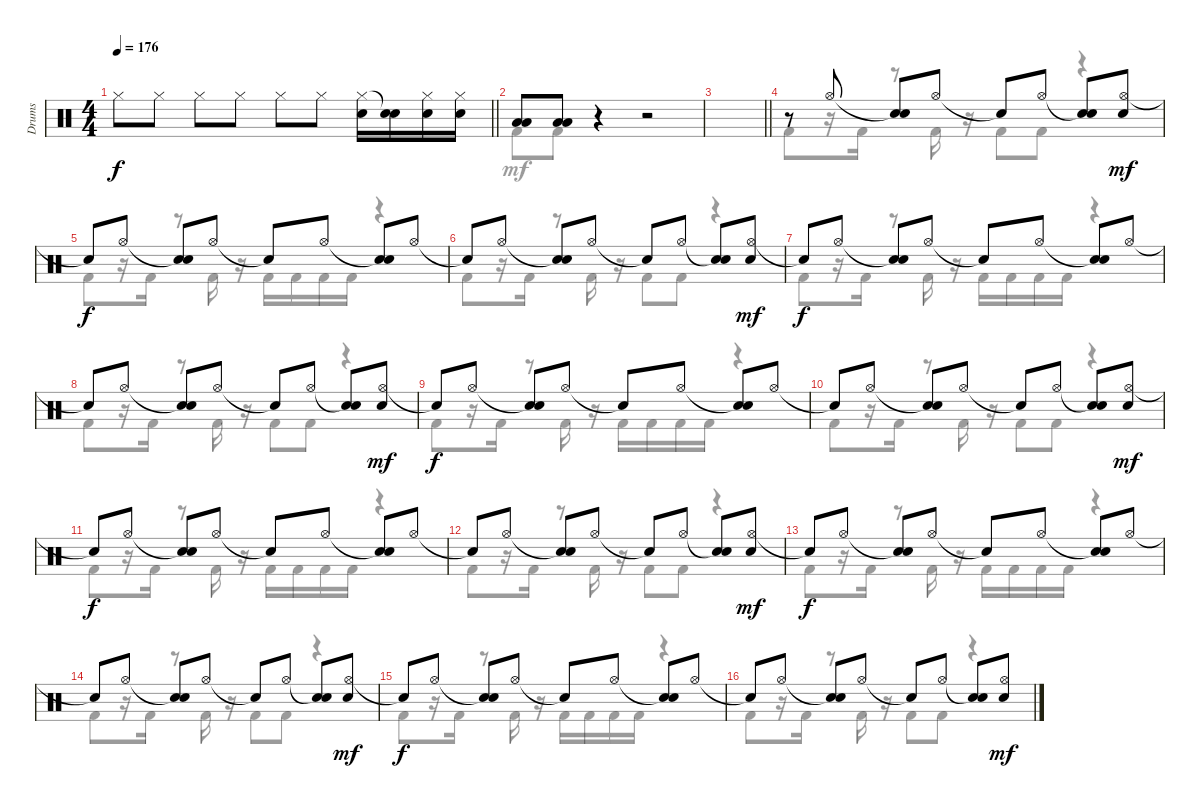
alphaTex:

\track ("Drums" "Drums") {instrument percussion}
\staff {score}
\articulation defaults
\voice
\ts (4 4)
\tempo 176
\clef neutral
\barLineRight lightlight
\ks c "Hi-Hat (closed)".8{dy f} "Hi-Hat (closed)".8 "Hi-Hat (closed)".8 "Hi-Hat (closed)".8 "Hi-Hat (closed)".8 "Hi-Hat (closed)".8
("Hi-Hat (closed)" "Snare (hit) 2").16 ("Snare (hit)"{t} "Snare (hit) 2").16 ("Hi-Hat (closed)" "Snare (hit) 2").16 ("Hi-Hat (closed)" "Snare (hit) 2").16 |
("Low Tom (hit)" "Low Floor Tom (hit)").8 ("Low Tom (hit)" "Low Floor Tom (hit)").8 r.4 r.2 |
\barLineRight lightlight
|
r.8 "Hi-Hat (open)".8 ("Snare (hit)"{t} "Snare (hit) 2").8 "Hi-Hat (open)".8 "Snare (hit)"{t}.8 "Hi-Hat (open)".8 ("Snare (hit)"{t} "Snare (hit) 2").8 ("Hi-Hat (open)" "Electric Snare (hit)").8{dy mf} |
"Snare (hit)"{t}.8{dy f} "Hi-Hat (open)".8 ("Snare (hit)"{t} "Snare (hit) 2").8 "Hi-Hat (open)".8 "Snare (hit)"{t}.8 "Hi-Hat (open)".8 ("Snare (hit)"{t} "Snare (hit) 2").8 "Hi-Hat (open)".8 |
"Snare (hit)"{t}.8 "Hi-Hat (open)".8 ("Snare (hit)"{t} "Snare (hit) 2").8 "Hi-Hat (open)".8 "Snare (hit)"{t}.8 "Hi-Hat (open)".8 ("Snare (hit)"{t} "Snare (hit) 2").8 ("Hi-Hat (open)" "Electric Snare (hit)").8{dy mf} |
"Snare (hit)"{t}.8{dy f} "Hi-Hat (open)".8 ("Snare (hit)"{t} "Snare (hit) 2").8 "Hi-Hat (open)".8 "Snare (hit)"{t}.8 "Hi-Hat (open)".8 ("Snare (hit)"{t} "Snare (hit) 2").8 "Hi-Hat (open)".8 |
"Snare (hit)"{t}.8 "Hi-Hat (open)".8 ("Snare (hit)"{t} "Snare (hit) 2").8 "Hi-Hat (open)".8 "Snare (hit)"{t}.8 "Hi-Hat (open)".8 ("Snare (hit)"{t} "Snare (hit) 2").8 ("Hi-Hat (open)" "Electric Snare (hit)").8{dy mf} |
"Snare (hit)"{t}.8{dy f} "Hi-Hat (open)".8 ("Snare (hit)"{t} "Snare (hit) 2").8 "Hi-Hat (open)".8 "Snare (hit)"{t}.8 "Hi-Hat (open)".8 ("Snare (hit)"{t} "Snare (hit) 2").8 "Hi-Hat (open)".8 |
"Snare (hit)"{t}.8 "Hi-Hat (open)".8 ("Snare (hit)"{t} "Snare (hit) 2").8 "Hi-Hat (open)".8 "Snare (hit)"{t}.8 "Hi-Hat (open)".8 ("Snare (hit)"{t} "Snare (hit) 2").8 ("Hi-Hat (open)" "Electric Snare (hit)").8{dy mf} |
"Snare (hit)"{t}.8{dy f} "Hi-Hat (open)".8 ("Snare (hit)"{t} "Snare (hit) 2").8 "Hi-Hat (open)".8 "Snare (hit)"{t}.8 "Hi-Hat (open)".8 ("Snare (hit)"{t} "Snare (hit) 2").8 "Hi-Hat (open)".8 |
"Snare (hit)"{t}.8 "Hi-Hat (open)".8 ("Snare (hit)"{t} "Snare (hit) 2").8 "Hi-Hat (open)".8 "Snare (hit)"{t}.8 "Hi-Hat (open)".8 ("Snare (hit)"{t} "Snare (hit) 2").8 ("Hi-Hat (open)" "Electric Snare (hit)").8{dy mf} |
"Snare (hit)"{t}.8{dy f} "Hi-Hat (open)".8 ("Snare (hit)"{t} "Snare (hit) 2").8 "Hi-Hat (open)".8 "Snare (hit)"{t}.8 "Hi-Hat (open)".8 ("Snare (hit)"{t} "Snare (hit) 2").8 "Hi-Hat (open)".8 |
"Snare (hit)"{t}.8 "Hi-Hat (open)".8 ("Snare (hit)"{t} "Snare (hit) 2").8 "Hi-Hat (open)".8 "Snare (hit)"{t}.8 "Hi-Hat (open)".8 ("Snare (hit)"{t} "Snare (hit) 2").8 ("Hi-Hat (open)" "Electric Snare (hit)").8{dy mf} |
"Snare (hit)"{t}.8{dy f} "Hi-Hat (open)".8 ("Snare (hit)"{t} "Snare (hit) 2").8 "Hi-Hat (open)".8 "Snare (hit)"{t}.8 "Hi-Hat (open)".8 ("Snare (hit)"{t} "Snare (hit) 2").8 "Hi-Hat (open)".8 |
"Snare (hit)"{t}.8 "Hi-Hat (open)".8 ("Snare (hit)"{t} "Snare (hit) 2").8 "Hi-Hat (open)".8 "Snare (hit)"{t}.8 "Hi-Hat (open)".8 ("Snare (hit)"{t} "Snare (hit) 2").8 ("Hi-Hat (open)" "Electric Snare (hit)").8{dy mf}
\voice
\clef neutral
\ottava regular
\simile none
\barLineRight lightlight
\ks c
|
"Kick (hit) 2".8 "Kick (hit) 2".8 r.4 r.2 |
\barLineRight lightlight
|
"Kick (hit) 2".8 r.16 "Kick (hit) 2".16 r.8 "Kick (hit) 2".16 r.16 "Kick (hit) 2".8 "Kick (hit) 2".8 r.4 |
"Kick (hit) 2".8 r.16 "Kick (hit) 2".16 r.8 "Kick (hit) 2".16 r.16 "Kick (hit) 2".16 "Kick (hit) 2".16 "Kick (hit) 2".16 "Kick (hit) 2".16 r.4 |
"Kick (hit) 2".8 r.16 "Kick (hit) 2".16 r.8 "Kick (hit) 2".16 r.16 "Kick (hit) 2".8 "Kick (hit) 2".8 r.4 |
"Kick (hit) 2".8 r.16 "Kick (hit) 2".16 r.8 "Kick (hit) 2".16 r.16 "Kick (hit) 2".16 "Kick (hit) 2".16 "Kick (hit) 2".16 "Kick (hit) 2".16 r.4 |
"Kick (hit) 2".8 r.16 "Kick (hit) 2".16 r.8 "Kick (hit) 2".16 r.16 "Kick (hit) 2".8 "Kick (hit) 2".8 r.4 |
"Kick (hit) 2".8 r.16 "Kick (hit) 2".16 r.8 "Kick (hit) 2".16 r.16 "Kick (hit) 2".16 "Kick (hit) 2".16 "Kick (hit) 2".16 "Kick (hit) 2".16 r.4 |
"Kick (hit) 2".8 r.16 "Kick (hit) 2".16 r.8 "Kick (hit) 2".16 r.16 "Kick (hit) 2".8 "Kick (hit) 2".8 r.4 |
"Kick (hit) 2".8 r.16 "Kick (hit) 2".16 r.8 "Kick (hit) 2".16 r.16 "Kick (hit) 2".16 "Kick (hit) 2".16 "Kick (hit) 2".16 "Kick (hit) 2".16 r.4 |
"Kick (hit) 2".8 r.16 "Kick (hit) 2".16 r.8 "Kick (hit) 2".16 r.16 "Kick (hit) 2".8 "Kick (hit) 2".8 r.4 |
"Kick (hit) 2".8 r.16 "Kick (hit) 2".16 r.8 "Kick (hit) 2".16 r.16 "Kick (hit) 2".16 "Kick (hit) 2".16 "Kick (hit) 2".16 "Kick (hit) 2".16 r.4 |
"Kick (hit) 2".8 r.16 "Kick (hit) 2".16 r.8 "Kick (hit) 2".16 r.16 "Kick (hit) 2".8 "Kick (hit) 2".8 r.4 |
"Kick (hit) 2".8 r.16 "Kick (hit) 2".16 r.8 "Kick (hit) 2".16 r.16 "Kick (hit) 2".16 "Kick (hit) 2".16 "Kick (hit) 2".16 "Kick (hit) 2".16 r.4 |
"Kick (hit) 2".8 r.16 "Kick (hit) 2".16 r.8 "Kick (hit) 2".16 r.16 "Kick (hit) 2".8 "Kick (hit) 2".8 r.4
